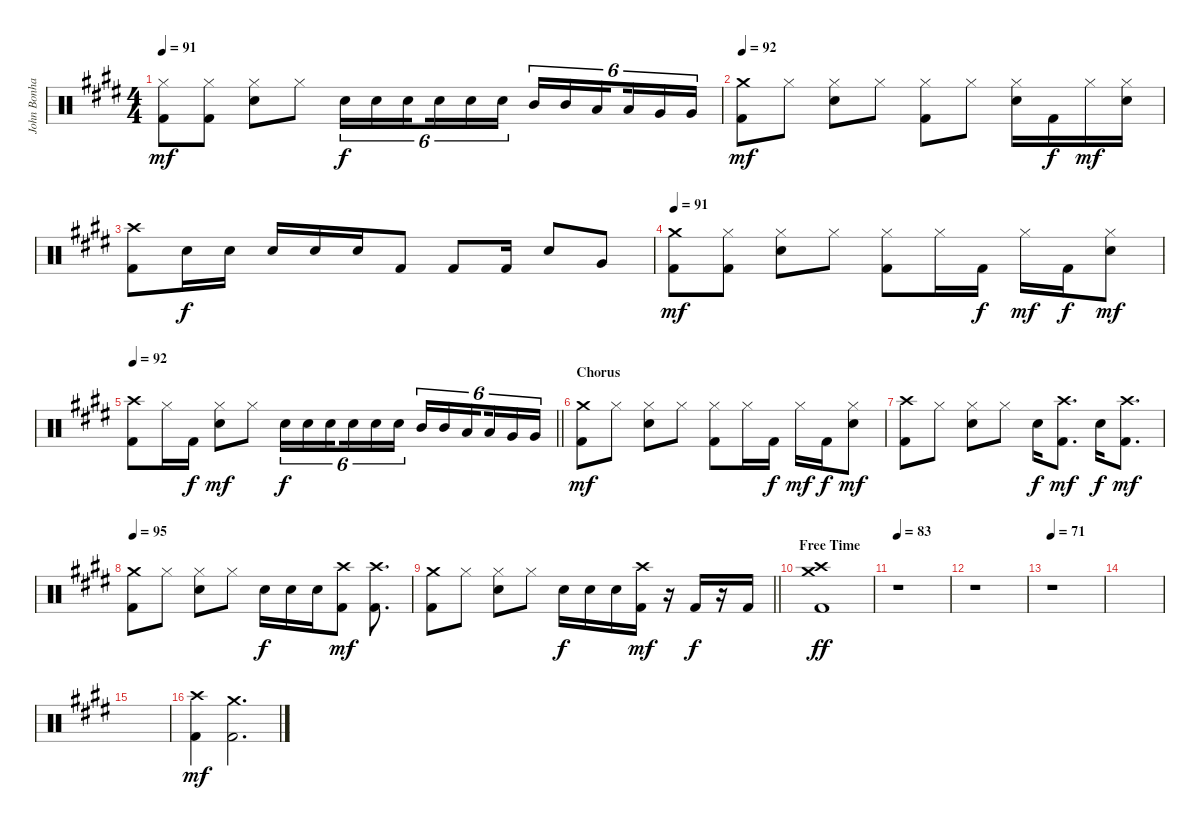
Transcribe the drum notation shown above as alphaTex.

\track ("John Bonham Drums" "John Bonha") {instrument percussion}
\staff {score}
\articulation defaults
\ts (4 4)
\tempo 91
\clef neutral
\ks e
("Hi-Hat (closed)" "Kick (hit) 2").8{dy mf} ("Hi-Hat (closed)" "Kick (hit) 2").8 ("Hi-Hat (closed)" "Snare (hit) 2").8 "Hi-Hat (closed)".8 "Snare (hit) 2".16{tu (6 4) dy f} "Snare (hit) 2".16{tu (6 4)} "Snare (hit) 2".16{tu (6 4) beam splitsecondary} "Snare (hit) 2".16{tu (6 4)} "Snare (hit) 2".16{tu (6 4)} "Snare (hit) 2".16{tu (6 4)} "Mid Tom (hit)".16{tu (6 4)} "Mid Tom (hit)".16{tu (6 4)} "Low Tom (hit)".16{tu (6 4) beam splitsecondary} "Low Tom (hit)".16{tu (6 4)} "Very Low Tom (hit)".16{tu (6 4)} "Very Low Tom (hit)".16{tu (6 4)} |
\tempo 92
("Crash medium (hit)" "Kick (hit) 2").8{dy mf} "Hi-Hat (closed)".8 ("Hi-Hat (closed)" "Snare (hit) 2").8 "Hi-Hat (closed)".8 ("Hi-Hat (closed)" "Kick (hit) 2").8 "Hi-Hat (closed)".8 ("Hi-Hat (closed)" "Snare (hit) 2").16 "Kick (hit) 2".16{dy f} "Hi-Hat (closed)".16{dy mf} ("Hi-Hat (closed)" "Snare (hit) 2").16 |
("Crash high (hit)" "Kick (hit) 2").8 "Snare (hit) 2".16{dy f} "Snare (hit) 2".16 "Snare (hit) 2".16 "Snare (hit) 2".16 "Snare (hit) 2".16 "Kick (hit) 2".8 "Kick (hit) 2".8 "Kick (hit) 2".16 "Snare (hit) 2".8 "Very Low Tom (hit)".8 |
\tempo 91
("Crash medium (hit)" "Kick (hit) 2").8{dy mf} ("Hi-Hat (closed)" "Kick (hit) 2").8 ("Hi-Hat (closed)" "Snare (hit) 2").8 "Hi-Hat (closed)".8 ("Hi-Hat (closed)" "Kick (hit) 2").8 "Hi-Hat (closed)".16 "Kick (hit) 2".16{dy f} "Hi-Hat (closed)".16{dy mf} "Kick (hit) 2".16{dy f} ("Hi-Hat (closed)" "Snare (hit) 2").8{dy mf} |
\tempo 92
\barLineRight lightlight
("Crash high (hit)" "Kick (hit) 2").8 "Hi-Hat (closed)".16 "Kick (hit) 2".16{dy f} ("Hi-Hat (closed)" "Snare (hit) 2").8{dy mf} "Hi-Hat (closed)".8 "Snare (hit) 2".16{tu (6 4) dy f} "Snare (hit) 2".16{tu (6 4)} "Snare (hit) 2".16{tu (6 4) beam splitsecondary} "Snare (hit) 2".16{tu (6 4)} "Snare (hit) 2".16{tu (6 4)} "Snare (hit) 2".16{tu (6 4)} "Mid Tom (hit)".16{tu (6 4)} "Mid Tom (hit)".16{tu (6 4)} "Low Tom (hit)".16{tu (6 4) beam splitsecondary} "Low Tom (hit)".16{tu (6 4)} "Very Low Tom (hit)".16{tu (6 4)} "Very Low Tom (hit)".16{tu (6 4)} |
\section ("" "Chorus")
("Crash medium (hit)" "Kick (hit) 2").8{dy mf} "Hi-Hat (closed)".8 ("Hi-Hat (closed)" "Snare (hit) 2").8 "Hi-Hat (closed)".8 ("Hi-Hat (closed)" "Kick (hit) 2").8 "Hi-Hat (closed)".16 "Kick (hit) 2".16{dy f} "Hi-Hat (closed)".16{dy mf} "Kick (hit) 2".16{dy f} ("Hi-Hat (closed)" "Snare (hit) 2").8{dy mf} |
("Crash high (hit)" "Kick (hit) 2").8 "Hi-Hat (closed)".8 ("Hi-Hat (closed)" "Snare (hit) 2").8 "Hi-Hat (closed)".8 "Snare (hit) 2".16{dy f} ("Crash high (hit)" "Kick (hit) 2").8{d dy mf} "Snare (hit) 2".16{dy f} ("Crash high (hit)" "Kick (hit) 2").8{d dy mf} |
\tempo 95
("Crash medium (hit)" "Kick (hit) 2").8 "Hi-Hat (closed)".8 ("Hi-Hat (closed)" "Snare (hit) 2").8 "Hi-Hat (closed)".8 "Snare (hit) 2".16{dy f} "Snare (hit) 2".16 "Snare (hit) 2".16 ("Crash high (hit)" "Kick (hit) 2").8{dy mf} ("Crash high (hit)" "Kick (hit) 2").8{d} |
\barLineRight lightlight
("Crash medium (hit)" "Kick (hit) 2").8 "Hi-Hat (closed)".8 ("Hi-Hat (closed)" "Snare (hit) 2").8 "Hi-Hat (closed)".8 "Snare (hit) 2".16{dy f} "Snare (hit) 2".16 "Snare (hit) 2".16 ("Crash high (hit)" "Kick (hit) 2").16{dy mf} r.16 "Kick (hit) 2".16{dy f} r.16 "Kick (hit) 2".16 |
\section ("" "Free Time")
("Crash high (hit)" "Crash medium (hit)" "Kick (hit) 2").1{dy ff} |
\tempo 83
r.1 |
r.1 |
\tempo 71
r.1 |
|
|
("Crash high (hit)" "Kick (hit) 2").4{dy mf} ("Crash medium (hit)" "Kick (hit) 2").2{d}
